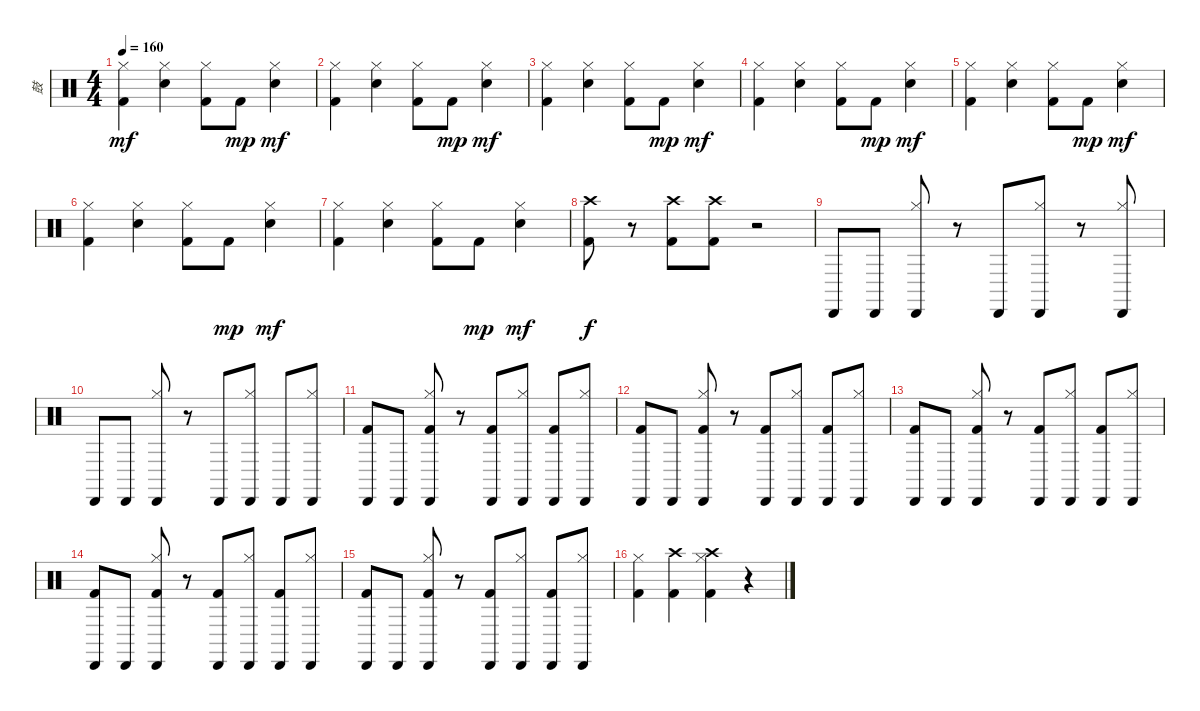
\track ("鼓" "鼓") {instrument percussion}
\staff {score}
\articulation defaults
\ts (4 4)
\tempo 160
\clef neutral
\ks c
("Hi-Hat (closed)" "Kick (hit) 2").4{dy mf} ("Snare (hit) 2" "Hi-Hat (closed)").4 ("Hi-Hat (closed)" "Kick (hit) 2").8 "Kick (hit) 2".8{dy mp} ("Snare (hit) 2" "Hi-Hat (closed)").4{dy mf} |
("Hi-Hat (closed)" "Kick (hit) 2").4 ("Snare (hit) 2" "Hi-Hat (closed)").4 ("Hi-Hat (closed)" "Kick (hit) 2").8 "Kick (hit) 2".8{dy mp} ("Snare (hit) 2" "Hi-Hat (closed)").4{dy mf} |
("Hi-Hat (closed)" "Kick (hit) 2").4 ("Snare (hit) 2" "Hi-Hat (closed)").4 ("Hi-Hat (closed)" "Kick (hit) 2").8 "Kick (hit) 2".8{dy mp} ("Snare (hit) 2" "Hi-Hat (closed)").4{dy mf} |
("Hi-Hat (closed)" "Kick (hit) 2").4 ("Snare (hit) 2" "Hi-Hat (closed)").4 ("Hi-Hat (closed)" "Kick (hit) 2").8 "Kick (hit) 2".8{dy mp} ("Snare (hit) 2" "Hi-Hat (closed)").4{dy mf} |
("Hi-Hat (closed)" "Kick (hit) 2").4 ("Snare (hit) 2" "Hi-Hat (closed)").4 ("Hi-Hat (closed)" "Kick (hit) 2").8 "Kick (hit) 2".8{dy mp} ("Snare (hit) 2" "Hi-Hat (closed)").4{dy mf} |
("Hi-Hat (closed)" "Kick (hit) 2").4 ("Snare (hit) 2" "Hi-Hat (closed)").4 ("Hi-Hat (closed)" "Kick (hit) 2").8 "Kick (hit) 2".8{dy mp} ("Snare (hit) 2" "Hi-Hat (closed)").4{dy mf} |
("Hi-Hat (closed)" "Kick (hit) 2").4 ("Snare (hit) 2" "Hi-Hat (closed)").4 ("Hi-Hat (closed)" "Kick (hit) 2").8 "Kick (hit) 2".8{dy mp} ("Snare (hit) 2" "Hi-Hat (closed)").4{dy mf} |
("Crash high (hit)" "Kick (hit) 2").8{dy f} r.8 ("Crash high (hit)" "Kick (hit) 2").8 ("Crash high (hit)" "Kick (hit) 2").8 r.2 |
"Cabasa (hit)".8 "Cabasa (hit)".8 ("Cabasa (hit)" "Hi-Hat (closed)").8 r.8 "Cabasa (hit)".8 ("Cabasa (hit)" "Hi-Hat (closed)").8 r.8 ("Cabasa (hit)" "Hi-Hat (closed)").8 |
"Cabasa (hit)".8 "Cabasa (hit)".8 ("Cabasa (hit)" "Hi-Hat (closed)").8 r.8 "Cabasa (hit)".8 ("Cabasa (hit)" "Hi-Hat (closed)").8 "Cabasa (hit)".8 ("Cabasa (hit)" "Hi-Hat (closed)").8 |
("Cabasa (hit)" "Kick (hit) 2").8 "Cabasa (hit)".8 ("Cabasa (hit)" "Hi-Hat (closed)" "Kick (hit) 2").8 r.8 ("Cabasa (hit)" "Kick (hit) 2").8 ("Cabasa (hit)" "Hi-Hat (closed)").8 ("Cabasa (hit)" "Kick (hit) 2").8 ("Cabasa (hit)" "Hi-Hat (closed)").8 |
("Cabasa (hit)" "Kick (hit) 2").8 "Cabasa (hit)".8 ("Cabasa (hit)" "Hi-Hat (closed)" "Kick (hit) 2").8 r.8 ("Cabasa (hit)" "Kick (hit) 2").8 ("Cabasa (hit)" "Hi-Hat (closed)").8 ("Cabasa (hit)" "Kick (hit) 2").8 ("Cabasa (hit)" "Hi-Hat (closed)").8 |
("Cabasa (hit)" "Kick (hit) 2").8 "Cabasa (hit)".8 ("Cabasa (hit)" "Hi-Hat (closed)" "Kick (hit) 2").8 r.8 ("Cabasa (hit)" "Kick (hit) 2").8 ("Cabasa (hit)" "Hi-Hat (closed)").8 ("Cabasa (hit)" "Kick (hit) 2").8 ("Cabasa (hit)" "Hi-Hat (closed)").8 |
("Cabasa (hit)" "Kick (hit) 2").8 "Cabasa (hit)".8 ("Cabasa (hit)" "Hi-Hat (closed)" "Kick (hit) 2").8 r.8 ("Cabasa (hit)" "Kick (hit) 2").8 ("Cabasa (hit)" "Hi-Hat (closed)").8 ("Cabasa (hit)" "Kick (hit) 2").8 ("Cabasa (hit)" "Hi-Hat (closed)").8 |
("Cabasa (hit)" "Kick (hit) 2").8 "Cabasa (hit)".8 ("Cabasa (hit)" "Hi-Hat (closed)" "Kick (hit) 2").8 r.8 ("Cabasa (hit)" "Kick (hit) 2").8 ("Cabasa (hit)" "Hi-Hat (closed)").8 ("Cabasa (hit)" "Kick (hit) 2").8 ("Cabasa (hit)" "Hi-Hat (closed)").8 |
("Hi-Hat (closed)" "Kick (hit) 2").4 ("Crash high (hit)" "Kick (hit) 2").4 ("Crash high (hit)" "Hi-Hat (closed)" "Kick (hit) 2").4 r.4
